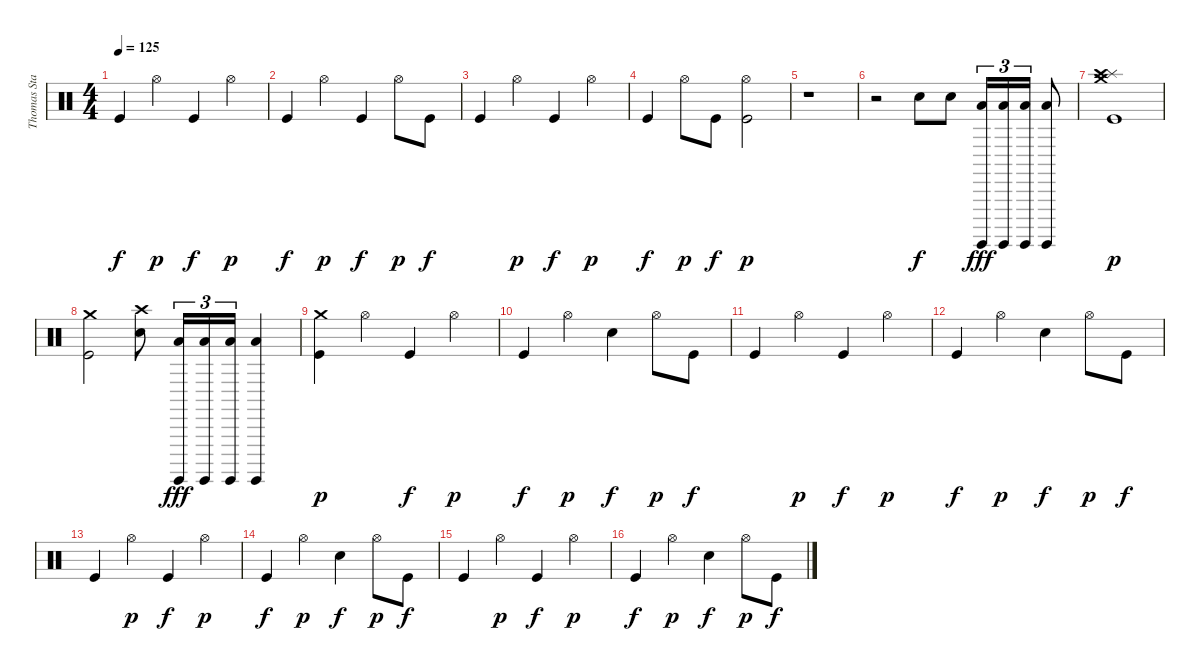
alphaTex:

\track ("Thomas Stauch" "Thomas Sta") {instrument percussion}
\staff {score}
\articulation defaults
\ts (4 4)
\tempo 125
\clef neutral
\ks c "Kick (hit)".4{dy f} "Hi-Hat (open)".4{dy p} "Kick (hit)".4{dy f} "Hi-Hat (open)".4{dy p}
|
"Kick (hit)".4{dy f} "Hi-Hat (open)".4{dy p} "Kick (hit)".4{dy f} "Hi-Hat (open)".8{dy p} "Kick (hit)".8{dy f} |
"Kick (hit)".4 "Hi-Hat (open)".4{dy p} "Kick (hit)".4{dy f} "Hi-Hat (open)".4{dy p} |
"Kick (hit)".4{dy f} "Hi-Hat (open)".8{dy p} "Kick (hit)".8{dy f} ("Hi-Hat (open)" "Kick (hit)").2{dy p} |
r.1 |
r.2 "Electric Snare (hit)".8{dy f} "Electric Snare (hit)".8 ("Surdo (hit)" "Low Floor Tom (hit)").16{tu (3 2) dy fff} ("Surdo (hit)" "Low Floor Tom (hit)").16{tu (3 2)} ("Surdo (hit)" "Low Floor Tom (hit)").16{tu (3 2)} ("Surdo (hit)" "Low Floor Tom (hit)").8 |
("Crash medium (hit)" "Splash (hit)" "Crash high (hit)" "Kick (hit)").1{dy p} |
("Crash medium (hit)" "Kick (hit)").2 ("Crash high (hit)" "Electric Snare (hit)").8 ("Surdo (hit)" "Low Floor Tom (hit)").16{tu (3 2) dy fff} ("Surdo (hit)" "Low Floor Tom (hit)").16{tu (3 2)} ("Surdo (hit)" "Low Floor Tom (hit)").16{tu (3 2)} ("Surdo (hit)" "Low Floor Tom (hit)").4 |
("Crash medium (hit)" "Kick (hit)").4{dy p} "Hi-Hat (open)".4 "Kick (hit)".4{dy f} "Hi-Hat (open)".4{dy p} |
"Kick (hit)".4{dy f} "Hi-Hat (open)".4{dy p} "Electric Snare (hit)".4{dy f} "Hi-Hat (open)".8{dy p} "Kick (hit)".8{dy f} |
"Kick (hit)".4 "Hi-Hat (open)".4{dy p} "Kick (hit)".4{dy f} "Hi-Hat (open)".4{dy p} |
"Kick (hit)".4{dy f} "Hi-Hat (open)".4{dy p} "Electric Snare (hit)".4{dy f} "Hi-Hat (open)".8{dy p} "Kick (hit)".8{dy f} |
"Kick (hit)".4 "Hi-Hat (open)".4{dy p} "Kick (hit)".4{dy f} "Hi-Hat (open)".4{dy p} |
"Kick (hit)".4{dy f} "Hi-Hat (open)".4{dy p} "Electric Snare (hit)".4{dy f} "Hi-Hat (open)".8{dy p} "Kick (hit)".8{dy f} |
"Kick (hit)".4 "Hi-Hat (open)".4{dy p} "Kick (hit)".4{dy f} "Hi-Hat (open)".4{dy p} |
"Kick (hit)".4{dy f} "Hi-Hat (open)".4{dy p} "Electric Snare (hit)".4{dy f} "Hi-Hat (open)".8{dy p} "Kick (hit)".8{dy f}
